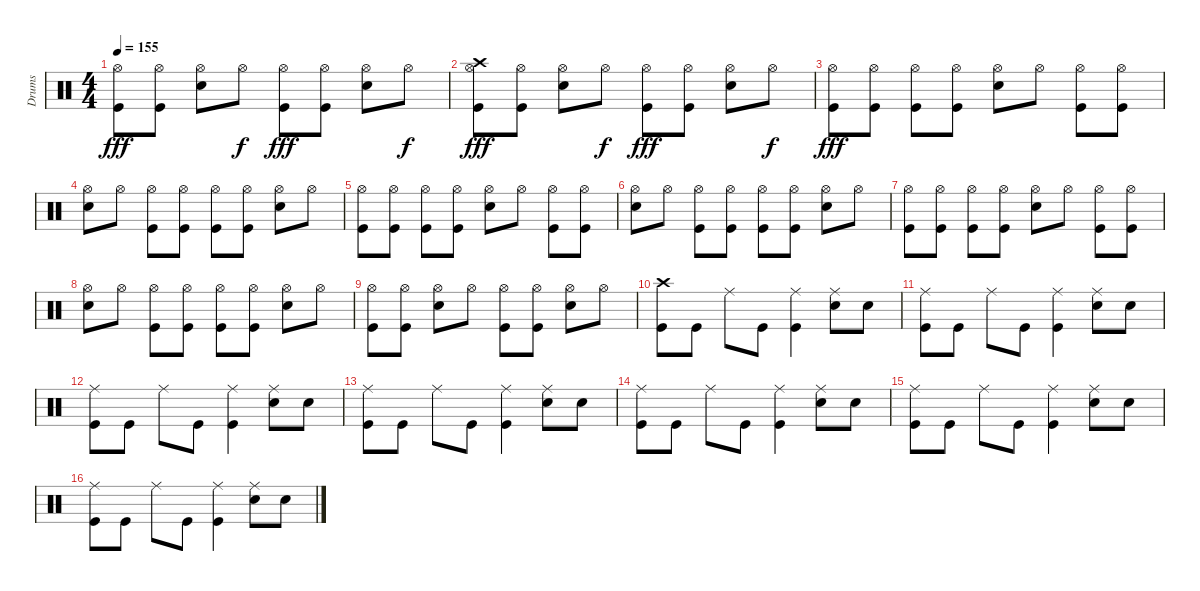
\track ("Drums               " "Drums     ") {instrument percussion}
\staff {score}
\articulation defaults
\ts (4 4)
\tempo 155
\clef neutral
\ks c
("Kick (hit)" "Hi-Hat (open)").8{dy fff} ("Kick (hit)" "Hi-Hat (open)").8 ("Snare (hit) 2" "Hi-Hat (open)").8 "Hi-Hat (open)".8{dy f} ("Kick (hit)" "Hi-Hat (open)").8{dy fff} ("Kick (hit)" "Hi-Hat (open)").8 ("Snare (hit) 2" "Hi-Hat (open)").8 "Hi-Hat (open)".8{dy f} |
("Hi-Hat (open)" "Kick (hit)" "Crash high (hit)").8{dy fff} ("Hi-Hat (open)" "Kick (hit)").8 ("Hi-Hat (open)" "Snare (hit) 2").8 "Hi-Hat (open)".8{dy f} ("Hi-Hat (open)" "Kick (hit)").8{dy fff} ("Hi-Hat (open)" "Kick (hit)").8 ("Hi-Hat (open)" "Snare (hit) 2").8 "Hi-Hat (open)".8{dy f} |
("Kick (hit)" "Hi-Hat (open)").8{dy fff} ("Kick (hit)" "Hi-Hat (open)").8 ("Hi-Hat (open)" "Kick (hit)").8 ("Hi-Hat (open)" "Kick (hit)").8 ("Hi-Hat (open)" "Snare (hit) 2").8 "Hi-Hat (open)".8 ("Hi-Hat (open)" "Kick (hit)").8 ("Hi-Hat (open)" "Kick (hit)").8 |
("Snare (hit) 2" "Hi-Hat (open)").8 "Hi-Hat (open)".8 ("Kick (hit)" "Hi-Hat (open)").8 ("Kick (hit)" "Hi-Hat (open)").8 ("Kick (hit)" "Hi-Hat (open)").8 ("Kick (hit)" "Hi-Hat (open)").8 ("Snare (hit) 2" "Hi-Hat (open)").8 "Hi-Hat (open)".8 |
("Kick (hit)" "Hi-Hat (open)").8 ("Kick (hit)" "Hi-Hat (open)").8 ("Kick (hit)" "Hi-Hat (open)").8 ("Kick (hit)" "Hi-Hat (open)").8 ("Snare (hit) 2" "Hi-Hat (open)").8 "Hi-Hat (open)".8 ("Kick (hit)" "Hi-Hat (open)").8 ("Kick (hit)" "Hi-Hat (open)").8 |
("Snare (hit) 2" "Hi-Hat (open)").8 "Hi-Hat (open)".8 ("Kick (hit)" "Hi-Hat (open)").8 ("Kick (hit)" "Hi-Hat (open)").8 ("Kick (hit)" "Hi-Hat (open)").8 ("Kick (hit)" "Hi-Hat (open)").8 ("Snare (hit) 2" "Hi-Hat (open)").8 "Hi-Hat (open)".8 |
("Kick (hit)" "Hi-Hat (open)").8 ("Kick (hit)" "Hi-Hat (open)").8 ("Kick (hit)" "Hi-Hat (open)").8 ("Kick (hit)" "Hi-Hat (open)").8 ("Snare (hit) 2" "Hi-Hat (open)").8 "Hi-Hat (open)".8 ("Kick (hit)" "Hi-Hat (open)").8 ("Kick (hit)" "Hi-Hat (open)").8 |
("Snare (hit) 2" "Hi-Hat (open)").8 "Hi-Hat (open)".8 ("Hi-Hat (open)" "Kick (hit)").8 ("Hi-Hat (open)" "Kick (hit)").8 ("Hi-Hat (open)" "Kick (hit)").8 ("Hi-Hat (open)" "Kick (hit)").8 ("Hi-Hat (open)" "Snare (hit) 2").8 "Hi-Hat (open)".8 |
("Kick (hit)" "Hi-Hat (open)").8 ("Kick (hit)" "Hi-Hat (open)").8 ("Snare (hit) 2" "Hi-Hat (open)").8 "Hi-Hat (open)".8 ("Kick (hit)" "Hi-Hat (open)").8 ("Kick (hit)" "Hi-Hat (open)").8 ("Snare (hit) 2" "Hi-Hat (open)").8 "Hi-Hat (open)".8 |
("Kick (hit)" "Crash high (hit)").8 "Kick (hit)".8 "Ride (middle)".8 "Kick (hit)".8 ("Kick (hit)" "Ride (middle)").4 ("Snare (hit) 2" "Ride (middle)").8 "Snare (hit) 2".8 |
("Kick (hit)" "Ride (middle)").8 "Kick (hit)".8 "Ride (middle)".8 "Kick (hit)".8 ("Kick (hit)" "Ride (middle)").4 ("Snare (hit) 2" "Ride (middle)").8 "Snare (hit) 2".8 |
("Kick (hit)" "Ride (middle)").8 "Kick (hit)".8 "Ride (middle)".8 "Kick (hit)".8 ("Kick (hit)" "Ride (middle)").4 ("Snare (hit) 2" "Ride (middle)").8 "Snare (hit) 2".8 |
("Kick (hit)" "Ride (middle)").8 "Kick (hit)".8 "Ride (middle)".8 "Kick (hit)".8 ("Kick (hit)" "Ride (middle)").4 ("Snare (hit) 2" "Ride (middle)").8 "Snare (hit) 2".8 |
("Kick (hit)" "Ride (middle)").8 "Kick (hit)".8 "Ride (middle)".8 "Kick (hit)".8 ("Kick (hit)" "Ride (middle)").4 ("Snare (hit) 2" "Ride (middle)").8 "Snare (hit) 2".8 |
("Kick (hit)" "Ride (middle)").8 "Kick (hit)".8 "Ride (middle)".8 "Kick (hit)".8 ("Kick (hit)" "Ride (middle)").4 ("Snare (hit) 2" "Ride (middle)").8 "Snare (hit) 2".8 |
("Kick (hit)" "Ride (middle)").8 "Kick (hit)".8 "Ride (middle)".8 "Kick (hit)".8 ("Kick (hit)" "Ride (middle)").4 ("Snare (hit) 2" "Ride (middle)").8 "Snare (hit) 2".8
